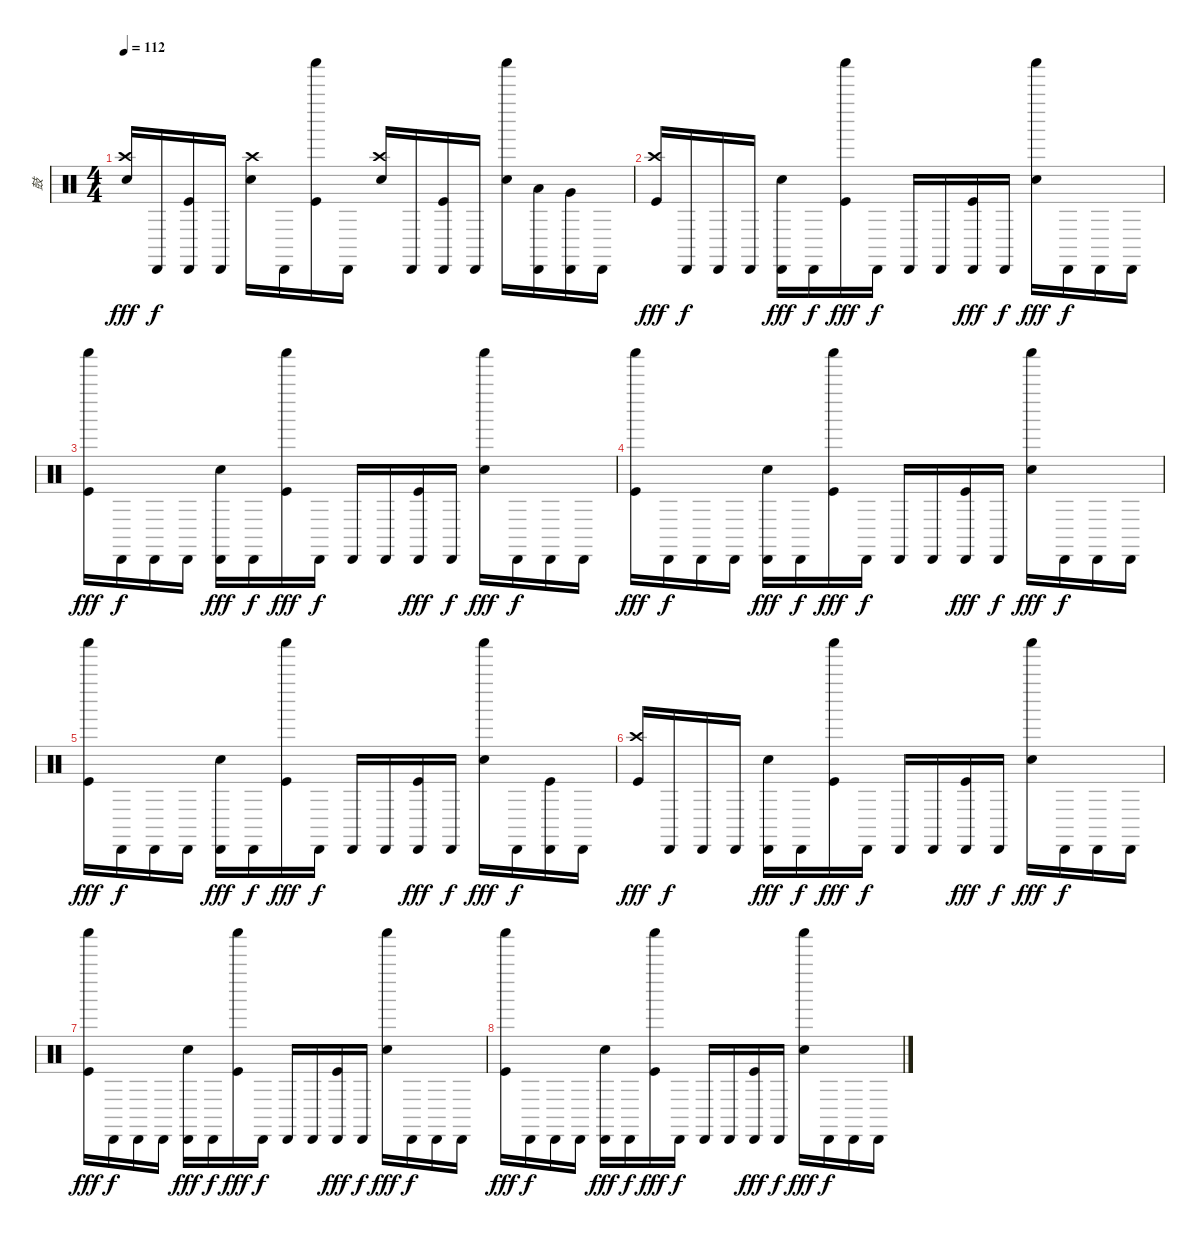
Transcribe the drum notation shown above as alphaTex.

\track ("鼓" "鼓") {instrument percussion}
\staff {score}
\articulation defaults
\ts (4 4)
\tempo 112
\clef neutral
\ks c
("Crash high (hit)" "Electric Snare (hit)").16{dy fff} "Cabasa (hit)".16{dy f} ("Cabasa (hit)" "Kick (hit)").16 "Cabasa (hit)".16 ("Crash high (hit)" "Electric Snare (hit)").16 "Cabasa (hit)".16 ("Shaker (hit)" "Kick (hit)").16 "Cabasa (hit)".16 ("Crash high (hit)" "Electric Snare (hit)").16 "Cabasa (hit)".16 ("Cabasa (hit)" "Kick (hit)").16 "Cabasa (hit)".16 ("Shaker (hit)" "Electric Snare (hit)").16 ("Cabasa (hit)" "Low Tom (hit)").16 ("Cabasa (hit)" "Very Low Tom (hit)").16 "Cabasa (hit)".16 |
("Crash high (hit)" "Kick (hit)").16{dy fff} "Cabasa (hit)".16{dy f} "Cabasa (hit)".16 "Cabasa (hit)".16 ("Cabasa (hit)" "Electric Snare (hit)").16{dy fff} "Cabasa (hit)".16{dy f} ("Shaker (hit)" "Kick (hit)").16{dy fff} "Cabasa (hit)".16{dy f} "Cabasa (hit)".16 "Cabasa (hit)".16 ("Cabasa (hit)" "Kick (hit)").16{dy fff} "Cabasa (hit)".16{dy f} ("Shaker (hit)" "Electric Snare (hit)").16{dy fff} "Cabasa (hit)".16{dy f} "Cabasa (hit)".16 "Cabasa (hit)".16 |
("Shaker (hit)" "Kick (hit)").16{dy fff} "Cabasa (hit)".16{dy f} "Cabasa (hit)".16 "Cabasa (hit)".16 ("Cabasa (hit)" "Electric Snare (hit)").16{dy fff} "Cabasa (hit)".16{dy f} ("Shaker (hit)" "Kick (hit)").16{dy fff} "Cabasa (hit)".16{dy f} "Cabasa (hit)".16 "Cabasa (hit)".16 ("Cabasa (hit)" "Kick (hit)").16{dy fff} "Cabasa (hit)".16{dy f} ("Shaker (hit)" "Electric Snare (hit)").16{dy fff} "Cabasa (hit)".16{dy f} "Cabasa (hit)".16 "Cabasa (hit)".16 |
("Shaker (hit)" "Kick (hit)").16{dy fff} "Cabasa (hit)".16{dy f} "Cabasa (hit)".16 "Cabasa (hit)".16 ("Cabasa (hit)" "Electric Snare (hit)").16{dy fff} "Cabasa (hit)".16{dy f} ("Shaker (hit)" "Kick (hit)").16{dy fff} "Cabasa (hit)".16{dy f} "Cabasa (hit)".16 "Cabasa (hit)".16 ("Cabasa (hit)" "Kick (hit)").16{dy fff} "Cabasa (hit)".16{dy f} ("Shaker (hit)" "Electric Snare (hit)").16{dy fff} "Cabasa (hit)".16{dy f} "Cabasa (hit)".16 "Cabasa (hit)".16 |
("Shaker (hit)" "Kick (hit)").16{dy fff} "Cabasa (hit)".16{dy f} "Cabasa (hit)".16 "Cabasa (hit)".16 ("Cabasa (hit)" "Electric Snare (hit)").16{dy fff} "Cabasa (hit)".16{dy f} ("Shaker (hit)" "Kick (hit)").16{dy fff} "Cabasa (hit)".16{dy f} "Cabasa (hit)".16 "Cabasa (hit)".16 ("Cabasa (hit)" "Kick (hit)").16{dy fff} "Cabasa (hit)".16{dy f} ("Shaker (hit)" "Electric Snare (hit)").16{dy fff} "Cabasa (hit)".16{dy f} ("Cabasa (hit)" "Kick (hit)").16 "Cabasa (hit)".16 |
("Crash high (hit)" "Kick (hit)").16{dy fff} "Cabasa (hit)".16{dy f} "Cabasa (hit)".16 "Cabasa (hit)".16 ("Cabasa (hit)" "Electric Snare (hit)").16{dy fff} "Cabasa (hit)".16{dy f} ("Shaker (hit)" "Kick (hit)").16{dy fff} "Cabasa (hit)".16{dy f} "Cabasa (hit)".16 "Cabasa (hit)".16 ("Cabasa (hit)" "Kick (hit)").16{dy fff} "Cabasa (hit)".16{dy f} ("Shaker (hit)" "Electric Snare (hit)").16{dy fff} "Cabasa (hit)".16{dy f} "Cabasa (hit)".16 "Cabasa (hit)".16 |
("Shaker (hit)" "Kick (hit)").16{dy fff} "Cabasa (hit)".16{dy f} "Cabasa (hit)".16 "Cabasa (hit)".16 ("Cabasa (hit)" "Electric Snare (hit)").16{dy fff} "Cabasa (hit)".16{dy f} ("Shaker (hit)" "Kick (hit)").16{dy fff} "Cabasa (hit)".16{dy f} "Cabasa (hit)".16 "Cabasa (hit)".16 ("Cabasa (hit)" "Kick (hit)").16{dy fff} "Cabasa (hit)".16{dy f} ("Shaker (hit)" "Electric Snare (hit)").16{dy fff} "Cabasa (hit)".16{dy f} "Cabasa (hit)".16 "Cabasa (hit)".16 |
("Shaker (hit)" "Kick (hit)").16{dy fff} "Cabasa (hit)".16{dy f} "Cabasa (hit)".16 "Cabasa (hit)".16 ("Cabasa (hit)" "Electric Snare (hit)").16{dy fff} "Cabasa (hit)".16{dy f} ("Shaker (hit)" "Kick (hit)").16{dy fff} "Cabasa (hit)".16{dy f} "Cabasa (hit)".16 "Cabasa (hit)".16 ("Cabasa (hit)" "Kick (hit)").16{dy fff} "Cabasa (hit)".16{dy f} ("Shaker (hit)" "Electric Snare (hit)").16{dy fff} "Cabasa (hit)".16{dy f} "Cabasa (hit)".16 "Cabasa (hit)".16
